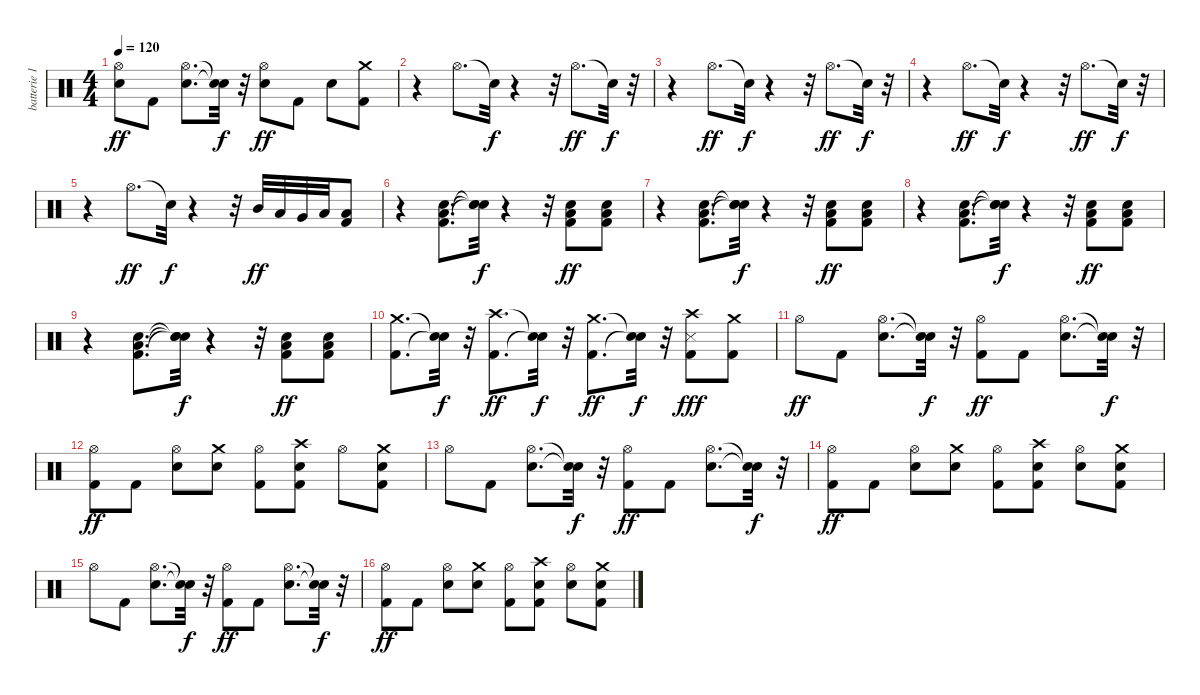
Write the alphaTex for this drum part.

\track ("batterie 1" "batterie 1") {instrument percussion}
\staff {score}
\articulation defaults
\ts (4 4)
\tempo 120
\clef neutral
\ks c
("Electric Snare (hit)" "Hi-Hat (open)").8{dy ff} "Kick (hit) 2".8 ("Electric Snare (hit)" "Hi-Hat (open)").8{d} ("Snare (hit)"{t} "Snare (hit)"{t}).32{dy f} r.32 ("Electric Snare (hit)" "Hi-Hat (open)").8{dy ff} "Kick (hit) 2".8 "Electric Snare (hit)".8 ("Kick (hit) 2" "Crash medium (hit)").8 |
r.4 "Hi-Hat (open)".8{d} "Snare (hit)"{t}.32{dy f} r.4 r.32 "Hi-Hat (open)".8{d dy ff} "Snare (hit)"{t}.32{dy f} r.32 |
r.4 "Hi-Hat (open)".8{d dy ff} "Snare (hit)"{t}.32{dy f} r.4 r.32 "Hi-Hat (open)".8{d dy ff} "Snare (hit)"{t}.32{dy f} r.32 |
r.4 "Hi-Hat (open)".8{d dy ff} "Snare (hit)"{t}.32{dy f} r.4 r.32 "Hi-Hat (open)".8{d dy ff} "Snare (hit)"{t}.32{dy f} r.32 |
r.4 "Hi-Hat (open)".8{d dy ff} "Snare (hit)"{t}.32{dy f} r.4 r.32 "Mid Tom (hit)".32{dy ff} "Low Tom (hit)".32 "Very Low Tom (hit)".32 "Low Floor Tom (hit)".32 ("Kick (hit) 2" "Low Floor Tom (hit)").8 |
r.4 ("Kick (hit) 2" "Electric Snare (hit)" "Low Floor Tom (hit)").8{d} ("Snare (hit)"{t} "Snare (hit)"{t} "Snare (hit)"{t}).32{dy f} r.4 r.32 ("Kick (hit) 2" "Electric Snare (hit)" "Low Floor Tom (hit)").8{dy ff} ("Kick (hit) 2" "Electric Snare (hit)" "Low Floor Tom (hit)").8 |
r.4 ("Kick (hit) 2" "Electric Snare (hit)" "Low Floor Tom (hit)").8{d} ("Snare (hit)"{t} "Snare (hit)"{t} "Snare (hit)"{t}).32{dy f} r.4 r.32 ("Kick (hit) 2" "Electric Snare (hit)" "Low Floor Tom (hit)").8{dy ff} ("Kick (hit) 2" "Electric Snare (hit)" "Low Floor Tom (hit)").8 |
r.4 ("Kick (hit) 2" "Electric Snare (hit)" "Low Floor Tom (hit)").8{d} ("Snare (hit)"{t} "Snare (hit)"{t} "Snare (hit)"{t}).32{dy f} r.4 r.32 ("Kick (hit) 2" "Electric Snare (hit)" "Low Floor Tom (hit)").8{dy ff} ("Kick (hit) 2" "Electric Snare (hit)" "Low Floor Tom (hit)").8 |
r.4 ("Kick (hit) 2" "Electric Snare (hit)" "Low Floor Tom (hit)").8{d} ("Snare (hit)"{t} "Snare (hit)"{t} "Snare (hit)"{t}).32{dy f} r.4 r.32 ("Kick (hit) 2" "Electric Snare (hit)" "Low Floor Tom (hit)").8{dy ff} ("Kick (hit) 2" "Electric Snare (hit)" "Low Floor Tom (hit)").8 |
("Kick (hit) 2" "Crash medium (hit)").8{d} ("Snare (hit)"{t} "Snare (hit)"{t}).32{dy f} r.32 ("Kick (hit) 2" "Crash high (hit)").8{d dy ff} ("Snare (hit)"{t} "Snare (hit)"{t}).32{dy f} r.32 ("Kick (hit) 2" "Crash medium (hit)").8{d dy ff} ("Snare (hit)"{t} "Snare (hit)"{t}).32{dy f} r.32 ("Kick (hit) 2" "Snare (side stick) 3" "Crash high (hit)").8{dy fff} ("Kick (hit) 2" "Crash medium (hit)").8 |
"Hi-Hat (open)".8{dy ff} "Kick (hit) 2".8 ("Electric Snare (hit)" "Hi-Hat (open)").8{d} ("Snare (hit)"{t} "Snare (hit)"{t}).32{dy f} r.32 ("Kick (hit) 2" "Hi-Hat (open)").8{dy ff} "Kick (hit) 2".8 ("Electric Snare (hit)" "Hi-Hat (open)").8{d} ("Snare (hit)"{t} "Snare (hit)"{t}).32{dy f} r.32 |
("Kick (hit) 2" "Hi-Hat (open)").8{dy ff} "Kick (hit) 2".8 ("Electric Snare (hit)" "Hi-Hat (open)").8 ("Electric Snare (hit)" "Crash medium (hit)").8 ("Kick (hit) 2" "Hi-Hat (open)").8 ("Kick (hit) 2" "Electric Snare (hit)" "Crash high (hit)").8 "Hi-Hat (open)".8 ("Kick (hit) 2" "Electric Snare (hit)" "Crash medium (hit)").8 |
"Hi-Hat (open)".8 "Kick (hit) 2".8 ("Electric Snare (hit)" "Hi-Hat (open)").8{d} ("Snare (hit)"{t} "Snare (hit)"{t}).32{dy f} r.32 ("Kick (hit) 2" "Hi-Hat (open)").8{dy ff} "Kick (hit) 2".8 ("Electric Snare (hit)" "Hi-Hat (open)").8{d} ("Snare (hit)"{t} "Snare (hit)"{t}).32{dy f} r.32 |
("Kick (hit) 2" "Hi-Hat (open)").8{dy ff} "Kick (hit) 2".8 ("Electric Snare (hit)" "Hi-Hat (open)").8 ("Electric Snare (hit)" "Crash medium (hit)").8 ("Kick (hit) 2" "Hi-Hat (open)").8 ("Kick (hit) 2" "Electric Snare (hit)" "Crash high (hit)").8 ("Electric Snare (hit)" "Hi-Hat (open)").8 ("Kick (hit) 2" "Electric Snare (hit)" "Crash medium (hit)").8 |
"Hi-Hat (open)".8 "Kick (hit) 2".8 ("Electric Snare (hit)" "Hi-Hat (open)").8{d} ("Snare (hit)"{t} "Snare (hit)"{t}).32{dy f} r.32 ("Kick (hit) 2" "Hi-Hat (open)").8{dy ff} "Kick (hit) 2".8 ("Electric Snare (hit)" "Hi-Hat (open)").8{d} ("Snare (hit)"{t} "Snare (hit)"{t}).32{dy f} r.32 |
("Kick (hit) 2" "Hi-Hat (open)").8{dy ff} "Kick (hit) 2".8 ("Electric Snare (hit)" "Hi-Hat (open)").8 ("Electric Snare (hit)" "Crash medium (hit)").8 ("Kick (hit) 2" "Hi-Hat (open)").8 ("Kick (hit) 2" "Electric Snare (hit)" "Crash high (hit)").8 ("Electric Snare (hit)" "Hi-Hat (open)").8 ("Kick (hit) 2" "Electric Snare (hit)" "Crash medium (hit)").8
